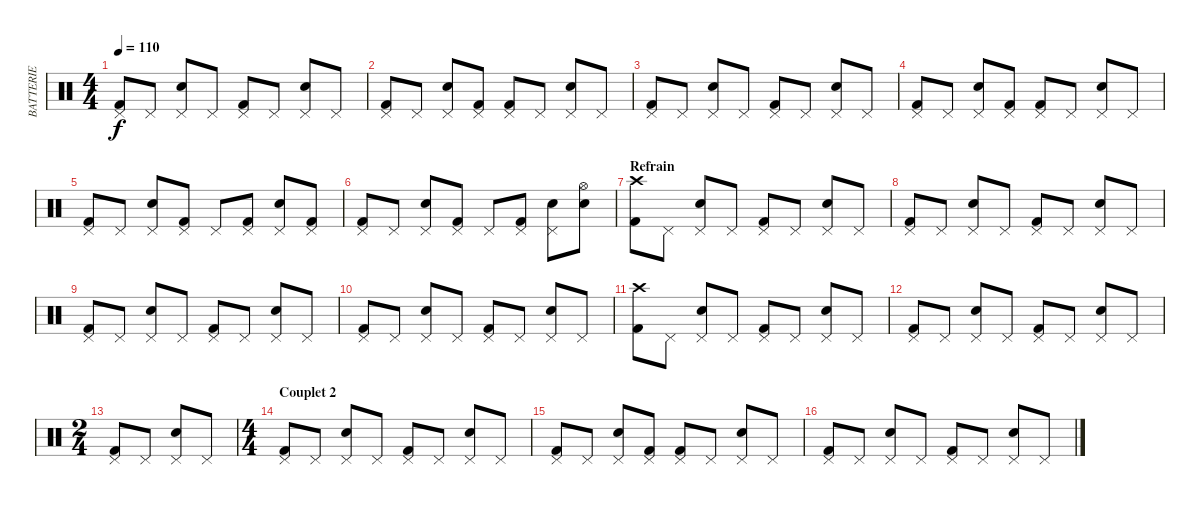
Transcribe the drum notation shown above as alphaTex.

\track ("BATTERIE" "BATTERIE") {instrument percussion}
\staff {score}
\articulation defaults
\ts (4 4)
\tempo 110
\clef neutral
\ks c
("Pedal Hi-Hat (hit)" "Kick (hit) 2").8{dy f} "Pedal Hi-Hat (hit)".8 ("Pedal Hi-Hat (hit)" "Snare (hit) 2").8 "Pedal Hi-Hat (hit)".8 ("Pedal Hi-Hat (hit)" "Kick (hit) 2").8 "Pedal Hi-Hat (hit)".8 ("Pedal Hi-Hat (hit)" "Snare (hit) 2").8 "Pedal Hi-Hat (hit)".8 |
("Pedal Hi-Hat (hit)" "Kick (hit) 2").8 "Pedal Hi-Hat (hit)".8 ("Pedal Hi-Hat (hit)" "Snare (hit) 2").8 ("Pedal Hi-Hat (hit)" "Kick (hit) 2").8 ("Pedal Hi-Hat (hit)" "Kick (hit) 2").8 "Pedal Hi-Hat (hit)".8 ("Pedal Hi-Hat (hit)" "Snare (hit) 2").8 "Pedal Hi-Hat (hit)".8 |
("Pedal Hi-Hat (hit)" "Kick (hit) 2").8 "Pedal Hi-Hat (hit)".8 ("Pedal Hi-Hat (hit)" "Snare (hit) 2").8 "Pedal Hi-Hat (hit)".8 ("Pedal Hi-Hat (hit)" "Kick (hit) 2").8 "Pedal Hi-Hat (hit)".8 ("Pedal Hi-Hat (hit)" "Snare (hit) 2").8 "Pedal Hi-Hat (hit)".8 |
("Pedal Hi-Hat (hit)" "Kick (hit) 2").8 "Pedal Hi-Hat (hit)".8 ("Pedal Hi-Hat (hit)" "Snare (hit) 2").8 ("Pedal Hi-Hat (hit)" "Kick (hit) 2").8 ("Pedal Hi-Hat (hit)" "Kick (hit) 2").8 "Pedal Hi-Hat (hit)".8 ("Pedal Hi-Hat (hit)" "Snare (hit) 2").8 "Pedal Hi-Hat (hit)".8 |
("Pedal Hi-Hat (hit)" "Kick (hit) 2").8 "Pedal Hi-Hat (hit)".8 ("Pedal Hi-Hat (hit)" "Snare (hit) 2").8 ("Pedal Hi-Hat (hit)" "Kick (hit) 2").8 "Pedal Hi-Hat (hit)".8 ("Pedal Hi-Hat (hit)" "Kick (hit) 2").8 ("Pedal Hi-Hat (hit)" "Snare (hit) 2").8 ("Pedal Hi-Hat (hit)" "Kick (hit) 2").8 |
("Pedal Hi-Hat (hit)" "Kick (hit) 2").8 "Pedal Hi-Hat (hit)".8 ("Pedal Hi-Hat (hit)" "Snare (hit) 2").8 ("Pedal Hi-Hat (hit)" "Kick (hit) 2").8 "Pedal Hi-Hat (hit)".8 ("Pedal Hi-Hat (hit)" "Kick (hit) 2").8 ("Pedal Hi-Hat (hit)" "Snare (hit) 2").8 ("Hi-Hat (open)" "Snare (hit) 2").8 |
\section ("" "Refrain")
("Crash high (hit)" "Kick (hit) 2").8 "Pedal Hi-Hat (hit)".8 ("Pedal Hi-Hat (hit)" "Snare (hit) 2").8 "Pedal Hi-Hat (hit)".8 ("Pedal Hi-Hat (hit)" "Kick (hit) 2").8 "Pedal Hi-Hat (hit)".8 ("Pedal Hi-Hat (hit)" "Snare (hit) 2").8 "Pedal Hi-Hat (hit)".8 |
("Pedal Hi-Hat (hit)" "Kick (hit) 2").8 "Pedal Hi-Hat (hit)".8 ("Pedal Hi-Hat (hit)" "Snare (hit) 2").8 "Pedal Hi-Hat (hit)".8 ("Pedal Hi-Hat (hit)" "Kick (hit) 2").8 "Pedal Hi-Hat (hit)".8 ("Pedal Hi-Hat (hit)" "Snare (hit) 2").8 "Pedal Hi-Hat (hit)".8 |
("Pedal Hi-Hat (hit)" "Kick (hit) 2").8 "Pedal Hi-Hat (hit)".8 ("Pedal Hi-Hat (hit)" "Snare (hit) 2").8 "Pedal Hi-Hat (hit)".8 ("Pedal Hi-Hat (hit)" "Kick (hit) 2").8 "Pedal Hi-Hat (hit)".8 ("Pedal Hi-Hat (hit)" "Snare (hit) 2").8 "Pedal Hi-Hat (hit)".8 |
("Pedal Hi-Hat (hit)" "Kick (hit) 2").8 "Pedal Hi-Hat (hit)".8 ("Pedal Hi-Hat (hit)" "Snare (hit) 2").8 "Pedal Hi-Hat (hit)".8 ("Pedal Hi-Hat (hit)" "Kick (hit) 2").8 "Pedal Hi-Hat (hit)".8 ("Pedal Hi-Hat (hit)" "Snare (hit) 2").8 "Pedal Hi-Hat (hit)".8 |
("Crash high (hit)" "Kick (hit) 2").8 "Pedal Hi-Hat (hit)".8 ("Pedal Hi-Hat (hit)" "Snare (hit) 2").8 "Pedal Hi-Hat (hit)".8 ("Pedal Hi-Hat (hit)" "Kick (hit) 2").8 "Pedal Hi-Hat (hit)".8 ("Pedal Hi-Hat (hit)" "Snare (hit) 2").8 "Pedal Hi-Hat (hit)".8 |
("Pedal Hi-Hat (hit)" "Kick (hit) 2").8 "Pedal Hi-Hat (hit)".8 ("Pedal Hi-Hat (hit)" "Snare (hit) 2").8 "Pedal Hi-Hat (hit)".8 ("Pedal Hi-Hat (hit)" "Kick (hit) 2").8 "Pedal Hi-Hat (hit)".8 ("Pedal Hi-Hat (hit)" "Snare (hit) 2").8 "Pedal Hi-Hat (hit)".8 |
\ts (2 4)
("Pedal Hi-Hat (hit)" "Kick (hit) 2").8 "Pedal Hi-Hat (hit)".8 ("Pedal Hi-Hat (hit)" "Snare (hit) 2").8 "Pedal Hi-Hat (hit)".8 |
\ts (4 4)
\section ("" "Couplet 2")
("Pedal Hi-Hat (hit)" "Kick (hit) 2").8 "Pedal Hi-Hat (hit)".8 ("Pedal Hi-Hat (hit)" "Snare (hit) 2").8 "Pedal Hi-Hat (hit)".8 ("Pedal Hi-Hat (hit)" "Kick (hit) 2").8 "Pedal Hi-Hat (hit)".8 ("Pedal Hi-Hat (hit)" "Snare (hit) 2").8 "Pedal Hi-Hat (hit)".8 |
("Pedal Hi-Hat (hit)" "Kick (hit) 2").8 "Pedal Hi-Hat (hit)".8 ("Pedal Hi-Hat (hit)" "Snare (hit) 2").8 ("Pedal Hi-Hat (hit)" "Kick (hit) 2").8 ("Pedal Hi-Hat (hit)" "Kick (hit) 2").8 "Pedal Hi-Hat (hit)".8 ("Pedal Hi-Hat (hit)" "Snare (hit) 2").8 "Pedal Hi-Hat (hit)".8 |
("Pedal Hi-Hat (hit)" "Kick (hit) 2").8 "Pedal Hi-Hat (hit)".8 ("Pedal Hi-Hat (hit)" "Snare (hit) 2").8 "Pedal Hi-Hat (hit)".8 ("Pedal Hi-Hat (hit)" "Kick (hit) 2").8 "Pedal Hi-Hat (hit)".8 ("Pedal Hi-Hat (hit)" "Snare (hit) 2").8 "Pedal Hi-Hat (hit)".8
